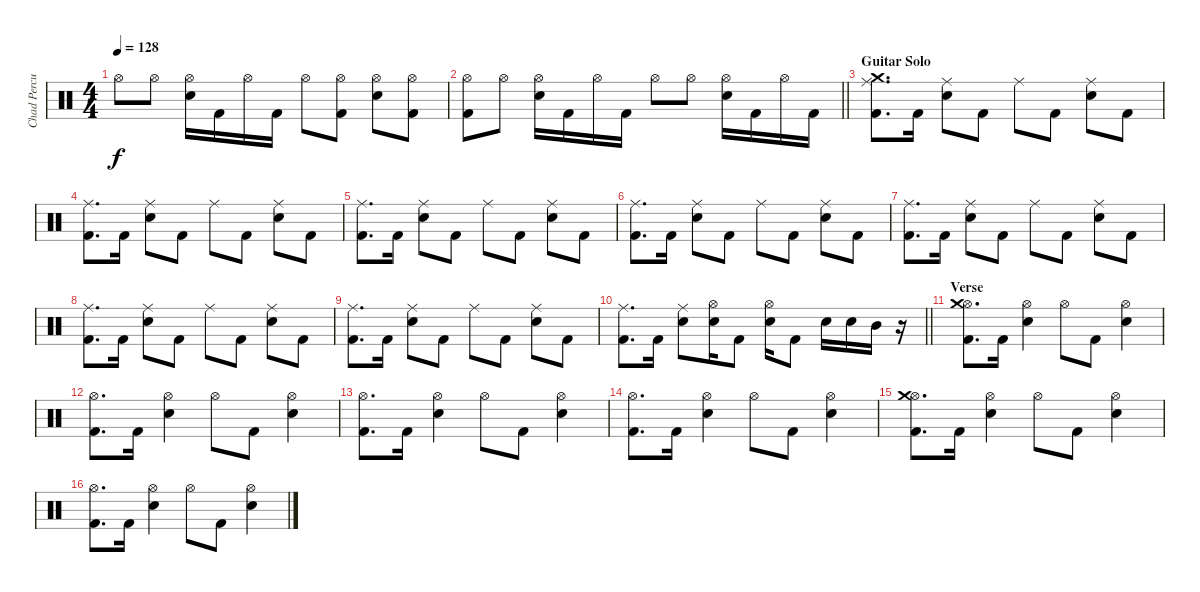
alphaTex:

\track ("Chad Percuson (11)" "Chad Percu") {instrument percussion}
\staff {score}
\articulation defaults
\ts (4 4)
\tempo 128
\clef neutral
\ks c "Hi-Hat (open)".8{dy f} "Hi-Hat (open)".8
("Hi-Hat (open)" "Electric Snare (hit)").16 "Kick (hit) 2".16 "Hi-Hat (open)".16 "Kick (hit) 2".16 "Hi-Hat (open)".8 ("Hi-Hat (open)" "Kick (hit) 2").8 ("Hi-Hat (open)" "Electric Snare (hit)").8 ("Hi-Hat (open)" "Kick (hit) 2").8 |
\barLineRight lightlight
("Hi-Hat (open)" "Kick (hit) 2").8 "Hi-Hat (open)".8 ("Hi-Hat (open)" "Electric Snare (hit)").16 "Kick (hit) 2".16 "Hi-Hat (open)".16 "Kick (hit) 2".16 "Hi-Hat (open)".8 "Hi-Hat (open)".8 ("Hi-Hat (open)" "Electric Snare (hit)").16 "Kick (hit) 2".16 "Hi-Hat (open)".16 "Kick (hit) 2".16 |
\section ("" "Guitar Solo")
("Ride (middle)" "Kick (hit) 2" "Crash medium (hit)").8{d} "Kick (hit) 2".16 ("Ride (middle)" "Electric Snare (hit)").8 "Kick (hit) 2".8 "Ride (middle)".8 "Kick (hit) 2".8 ("Ride (middle)" "Electric Snare (hit)").8 "Kick (hit) 2".8 |
("Ride (middle)" "Kick (hit) 2").8{d} "Kick (hit) 2".16 ("Ride (middle)" "Electric Snare (hit)").8 "Kick (hit) 2".8 "Ride (middle)".8 "Kick (hit) 2".8 ("Ride (middle)" "Electric Snare (hit)").8 "Kick (hit) 2".8 |
("Ride (middle)" "Kick (hit) 2").8{d} "Kick (hit) 2".16 ("Ride (middle)" "Electric Snare (hit)").8 "Kick (hit) 2".8 "Ride (middle)".8 "Kick (hit) 2".8 ("Ride (middle)" "Electric Snare (hit)").8 "Kick (hit) 2".8 |
("Ride (middle)" "Kick (hit) 2").8{d} "Kick (hit) 2".16 ("Ride (middle)" "Electric Snare (hit)").8 "Kick (hit) 2".8 "Ride (middle)".8 "Kick (hit) 2".8 ("Ride (middle)" "Electric Snare (hit)").8 "Kick (hit) 2".8 |
("Ride (middle)" "Kick (hit) 2").8{d} "Kick (hit) 2".16 ("Ride (middle)" "Electric Snare (hit)").8 "Kick (hit) 2".8 "Ride (middle)".8 "Kick (hit) 2".8 ("Ride (middle)" "Electric Snare (hit)").8 "Kick (hit) 2".8 |
("Ride (middle)" "Kick (hit) 2").8{d} "Kick (hit) 2".16 ("Ride (middle)" "Electric Snare (hit)").8 "Kick (hit) 2".8 "Ride (middle)".8 "Kick (hit) 2".8 ("Ride (middle)" "Electric Snare (hit)").8 "Kick (hit) 2".8 |
("Ride (middle)" "Kick (hit) 2").8{d} "Kick (hit) 2".16 ("Ride (middle)" "Electric Snare (hit)").8 "Kick (hit) 2".8 "Ride (middle)".8 "Kick (hit) 2".8 ("Ride (middle)" "Electric Snare (hit)").8 "Kick (hit) 2".8 |
\barLineRight lightlight
("Ride (middle)" "Kick (hit) 2").8{d} "Kick (hit) 2".16 ("Ride (middle)" "Electric Snare (hit)").8 ("Hi-Hat (open)" "Electric Snare (hit)").16 "Kick (hit) 2".8 ("Hi-Hat (open)" "Electric Snare (hit)").16 "Kick (hit) 2".8 "Electric Snare (hit)".16 "Electric Snare (hit)".16 "Mid Tom (hit)".16 r.16 |
\section ("" "Verse")
("Hi-Hat (open)" "Kick (hit) 2" "Crash medium (hit)").8{d} "Kick (hit) 2".16 ("Hi-Hat (open)" "Electric Snare (hit)").4 "Hi-Hat (open)".8 "Kick (hit) 2".8 ("Hi-Hat (open)" "Electric Snare (hit)").4 |
("Hi-Hat (open)" "Kick (hit) 2").8{d} "Kick (hit) 2".16 ("Hi-Hat (open)" "Electric Snare (hit)").4 "Hi-Hat (open)".8 "Kick (hit) 2".8 ("Hi-Hat (open)" "Electric Snare (hit)").4 |
("Hi-Hat (open)" "Kick (hit) 2").8{d} "Kick (hit) 2".16 ("Hi-Hat (open)" "Electric Snare (hit)").4 "Hi-Hat (open)".8 "Kick (hit) 2".8 ("Hi-Hat (open)" "Electric Snare (hit)").4 |
("Hi-Hat (open)" "Kick (hit) 2").8{d} "Kick (hit) 2".16 ("Hi-Hat (open)" "Electric Snare (hit)").4 "Hi-Hat (open)".8 "Kick (hit) 2".8 ("Hi-Hat (open)" "Electric Snare (hit)").4 |
("Hi-Hat (open)" "Kick (hit) 2" "Crash medium (hit)").8{d} "Kick (hit) 2".16 ("Hi-Hat (open)" "Electric Snare (hit)").4 "Hi-Hat (open)".8 "Kick (hit) 2".8 ("Hi-Hat (open)" "Electric Snare (hit)").4 |
("Hi-Hat (open)" "Kick (hit) 2").8{d} "Kick (hit) 2".16 ("Hi-Hat (open)" "Electric Snare (hit)").4 "Hi-Hat (open)".8 "Kick (hit) 2".8 ("Hi-Hat (open)" "Electric Snare (hit)").4
